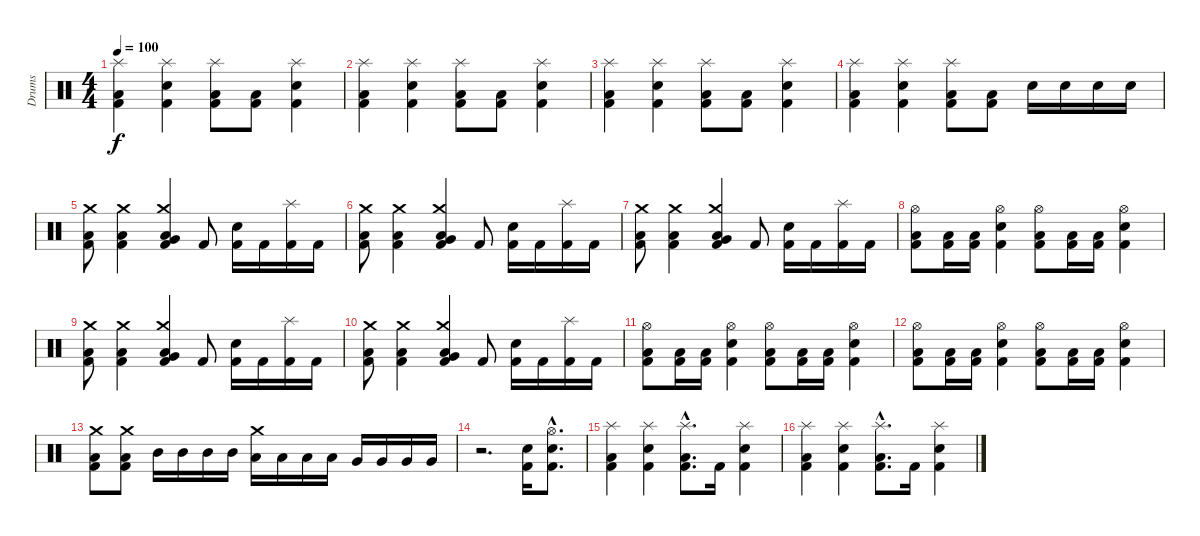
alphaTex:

\track ("Drums" "Drums") {instrument percussion}
\staff {score}
\articulation defaults
\ts (4 4)
\tempo 100
\clef neutral
\ks c
("Splash (hit)" "Low Floor Tom (hit)" "Kick (hit) 2").4{dy f} ("Splash (hit)" "Snare (hit) 2" "Kick (hit) 2").4 ("Splash (hit)" "Low Floor Tom (hit)" "Kick (hit) 2").8 ("Low Floor Tom (hit)" "Kick (hit) 2").8 ("Splash (hit)" "Snare (hit) 2" "Kick (hit) 2").4 |
("Splash (hit)" "Low Floor Tom (hit)" "Kick (hit) 2").4 ("Splash (hit)" "Snare (hit) 2" "Kick (hit) 2").4 ("Splash (hit)" "Low Floor Tom (hit)" "Kick (hit) 2").8 ("Low Floor Tom (hit)" "Kick (hit) 2").8 ("Splash (hit)" "Snare (hit) 2" "Kick (hit) 2").4 |
("Splash (hit)" "Low Floor Tom (hit)" "Kick (hit) 2").4 ("Splash (hit)" "Snare (hit) 2" "Kick (hit) 2").4 ("Splash (hit)" "Low Floor Tom (hit)" "Kick (hit) 2").8 ("Low Floor Tom (hit)" "Kick (hit) 2").8 ("Splash (hit)" "Snare (hit) 2" "Kick (hit) 2").4 |
("Splash (hit)" "Low Floor Tom (hit)" "Kick (hit) 2").4 ("Splash (hit)" "Snare (hit) 2" "Kick (hit) 2").4 ("Splash (hit)" "Low Floor Tom (hit)" "Kick (hit) 2").8 ("Low Floor Tom (hit)" "Kick (hit) 2").8 "Snare (hit) 2".16 "Snare (hit) 2".16 "Snare (hit) 2".16 "Snare (hit) 2".16 |
("Crash medium (hit)" "Low Floor Tom (hit)" "Kick (hit) 2").8 ("Crash medium (hit)" "Low Floor Tom (hit)" "Kick (hit) 2").4 ("Crash medium (hit)" "Very Low Tom (hit)" "Low Floor Tom (hit)" "Kick (hit) 2").4 "Kick (hit) 2".8 ("Electric Snare (hit)" "Kick (hit) 2").16 "Kick (hit) 2".16 ("Splash (hit)" "Kick (hit) 2").16 "Kick (hit) 2".16 |
("Crash medium (hit)" "Low Floor Tom (hit)" "Kick (hit) 2").8 ("Crash medium (hit)" "Low Floor Tom (hit)" "Kick (hit) 2").4 ("Crash medium (hit)" "Very Low Tom (hit)" "Low Floor Tom (hit)" "Kick (hit) 2").4 "Kick (hit) 2".8 ("Electric Snare (hit)" "Kick (hit) 2").16 "Kick (hit) 2".16 ("Splash (hit)" "Kick (hit) 2").16 "Kick (hit) 2".16 |
("Crash medium (hit)" "Low Floor Tom (hit)" "Kick (hit) 2").8 ("Crash medium (hit)" "Low Floor Tom (hit)" "Kick (hit) 2").4 ("Crash medium (hit)" "Very Low Tom (hit)" "Low Floor Tom (hit)" "Kick (hit) 2").4 "Kick (hit) 2".8 ("Electric Snare (hit)" "Kick (hit) 2").16 "Kick (hit) 2".16 ("Splash (hit)" "Kick (hit) 2").16 "Kick (hit) 2".16 |
("Hi-Hat (open)" "Low Floor Tom (hit)" "Kick (hit) 2").8 ("Low Floor Tom (hit)" "Kick (hit) 2").16 ("Low Floor Tom (hit)" "Kick (hit) 2").16 ("Hi-Hat (open)" "Electric Snare (hit)" "Kick (hit) 2").4 ("Hi-Hat (open)" "Low Floor Tom (hit)" "Kick (hit) 2").8 ("Low Floor Tom (hit)" "Kick (hit) 2").16 ("Low Floor Tom (hit)" "Kick (hit) 2").16 ("Hi-Hat (open)" "Electric Snare (hit)" "Kick (hit) 2").4 |
("Crash medium (hit)" "Low Floor Tom (hit)" "Kick (hit) 2").8 ("Crash medium (hit)" "Low Floor Tom (hit)" "Kick (hit) 2").4 ("Crash medium (hit)" "Very Low Tom (hit)" "Low Floor Tom (hit)" "Kick (hit) 2").4 "Kick (hit) 2".8 ("Electric Snare (hit)" "Kick (hit) 2").16 "Kick (hit) 2".16 ("Splash (hit)" "Kick (hit) 2").16 "Kick (hit) 2".16 |
("Crash medium (hit)" "Low Floor Tom (hit)" "Kick (hit) 2").8 ("Crash medium (hit)" "Low Floor Tom (hit)" "Kick (hit) 2").4 ("Crash medium (hit)" "Very Low Tom (hit)" "Low Floor Tom (hit)" "Kick (hit) 2").4 "Kick (hit) 2".8 ("Electric Snare (hit)" "Kick (hit) 2").16 "Kick (hit) 2".16 ("Splash (hit)" "Kick (hit) 2").16 "Kick (hit) 2".16 |
("Hi-Hat (open)" "Low Floor Tom (hit)" "Kick (hit) 2").8 ("Low Floor Tom (hit)" "Kick (hit) 2").16 ("Low Floor Tom (hit)" "Kick (hit) 2").16 ("Hi-Hat (open)" "Electric Snare (hit)" "Kick (hit) 2").4 ("Hi-Hat (open)" "Low Floor Tom (hit)" "Kick (hit) 2").8 ("Low Floor Tom (hit)" "Kick (hit) 2").16 ("Low Floor Tom (hit)" "Kick (hit) 2").16 ("Hi-Hat (open)" "Electric Snare (hit)" "Kick (hit) 2").4 |
("Hi-Hat (open)" "Low Floor Tom (hit)" "Kick (hit) 2").8 ("Low Floor Tom (hit)" "Kick (hit) 2").16 ("Low Floor Tom (hit)" "Kick (hit) 2").16 ("Hi-Hat (open)" "Electric Snare (hit)" "Kick (hit) 2").4 ("Hi-Hat (open)" "Low Floor Tom (hit)" "Kick (hit) 2").8 ("Low Floor Tom (hit)" "Kick (hit) 2").16 ("Low Floor Tom (hit)" "Kick (hit) 2").16 ("Hi-Hat (open)" "Electric Snare (hit)" "Kick (hit) 2").4 |
("Crash medium (hit)" "Low Floor Tom (hit)" "Kick (hit) 2").8 ("Crash medium (hit)" "Low Floor Tom (hit)" "Kick (hit) 2").8 "Mid Tom (hit)".16 "Mid Tom (hit)".16 "Mid Tom (hit)".16 "Mid Tom (hit)".16 ("Crash medium (hit)" "Low Tom (hit)").16 "Low Tom (hit)".16 "Low Tom (hit)".16 "Low Tom (hit)".16 "Very Low Tom (hit)".16 "Very Low Tom (hit)".16 "Very Low Tom (hit)".16 "Very Low Tom (hit)".16 |
r.2{d} ("Snare (hit) 2" "Kick (hit) 2").16 ("Hi-Hat (open)"{hac} "Snare (hit) 2"{hac} "Kick (hit) 2"{hac}).8{d} |
("Splash (hit)" "Low Floor Tom (hit)" "Kick (hit) 2").4 ("Splash (hit)" "Snare (hit) 2" "Kick (hit) 2").4 ("Splash (hit)"{hac} "Low Floor Tom (hit)"{hac} "Kick (hit) 2"{hac}).8{d} "Kick (hit) 2".16 ("Splash (hit)" "Snare (hit) 2" "Kick (hit) 2").4 |
("Splash (hit)" "Low Floor Tom (hit)" "Kick (hit) 2").4 ("Splash (hit)" "Snare (hit) 2" "Kick (hit) 2").4 ("Splash (hit)"{hac} "Low Floor Tom (hit)"{hac} "Kick (hit) 2"{hac}).8{d} "Kick (hit) 2".16 ("Splash (hit)" "Snare (hit) 2" "Kick (hit) 2").4
